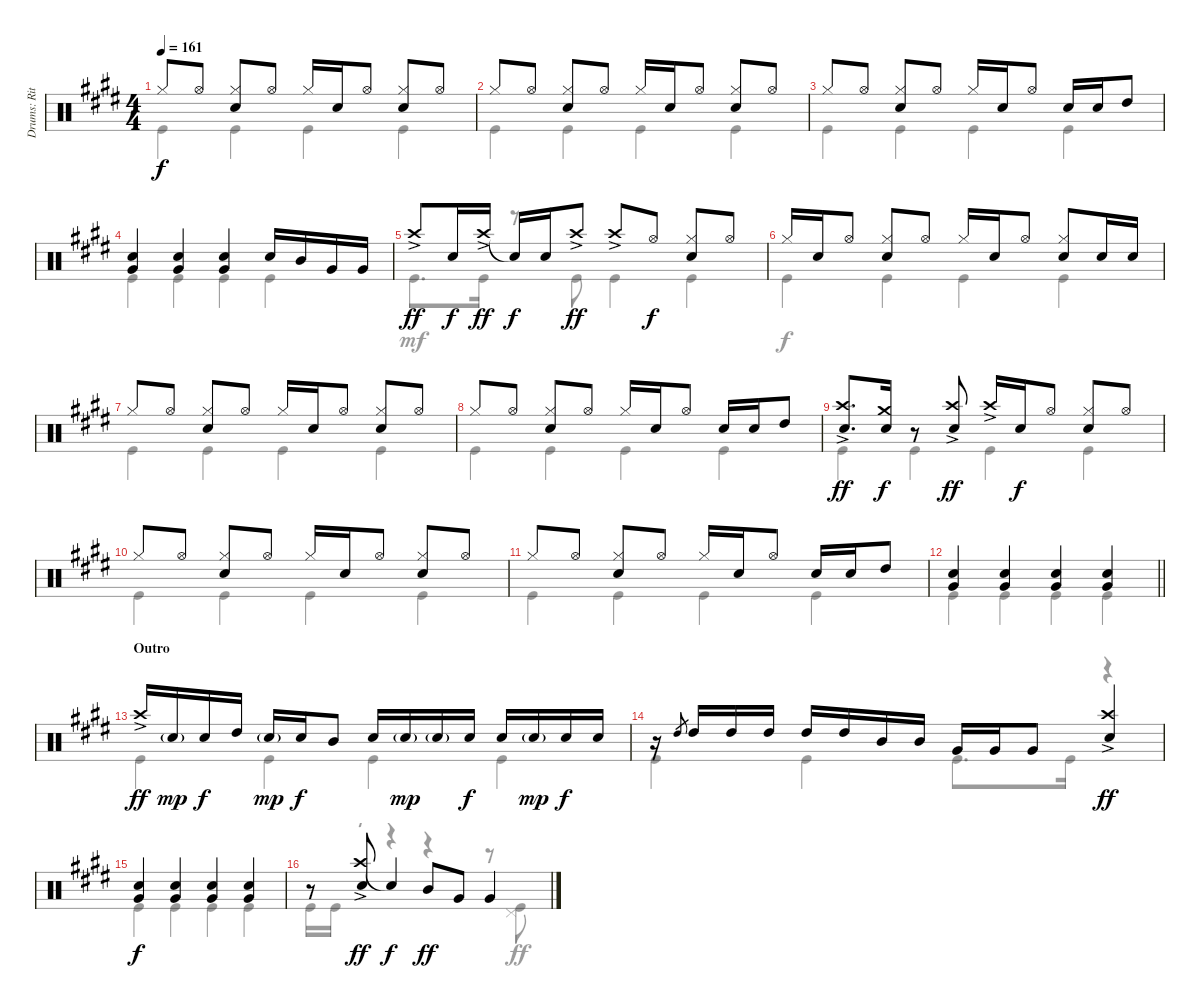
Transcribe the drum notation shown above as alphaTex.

\track ("Drums: Ritsu Tianaka" "Drums: Rit") {instrument percussion}
\staff {score}
\articulation defaults
\voice
\ts (4 4)
\tempo 161
\clef neutral
\ks e "Hi-Hat (closed)".8{dy f} "Hi-Hat (open)".8
("Hi-Hat (closed)" "Snare (hit) 2").8 "Hi-Hat (open)".8 "Hi-Hat (closed)".16 "Snare (hit) 2".16 "Hi-Hat (open)".8 ("Hi-Hat (closed)" "Snare (hit) 2").8 "Hi-Hat (open)".8 |
"Hi-Hat (closed)".8 "Hi-Hat (open)".8 ("Hi-Hat (closed)" "Snare (hit) 2").8 "Hi-Hat (open)".8 "Hi-Hat (closed)".16 "Snare (hit) 2".16 "Hi-Hat (open)".8 ("Hi-Hat (closed)" "Snare (hit) 2").8 "Hi-Hat (open)".8 |
"Hi-Hat (closed)".8 "Hi-Hat (open)".8 ("Hi-Hat (closed)" "Snare (hit) 2").8 "Hi-Hat (open)".8 "Hi-Hat (closed)".16 "Snare (hit) 2".16 "Hi-Hat (open)".8 "Snare (hit) 2".16 "Snare (hit) 2".16 "High Tom (hit)".8 |
("Snare (hit) 2" "Very Low Tom (hit)").4 ("Snare (hit) 2" "Very Low Tom (hit)").4 ("Snare (hit) 2" "Very Low Tom (hit)").4 "Snare (hit) 2".16 "Mid Tom (hit)".16 "Very Low Tom (hit)".16 "Very Low Tom (hit)".16 |
"Crash high (hit)"{ac}.8{dy ff} "Snare (hit) 2".16{dy f} "Crash high (hit)"{ac}.16{dy ff} "Snare (hit)"{t}.16{dy f} "Snare (hit) 2".16 "Crash high (hit)"{ac}.8{dy ff} "Crash high (hit)"{ac}.8 "Hi-Hat (open)".8{dy f} ("Hi-Hat (closed)" "Snare (hit) 2").8 "Hi-Hat (open)".8 |
"Hi-Hat (closed)".16 "Snare (hit) 2".16 "Hi-Hat (open)".8 ("Hi-Hat (closed)" "Snare (hit) 2").8 "Hi-Hat (open)".8 "Hi-Hat (closed)".16 "Snare (hit) 2".16 "Hi-Hat (open)".8 ("Hi-Hat (closed)" "Snare (hit) 2").8 "Snare (hit) 2".16 "Snare (hit) 2".16 |
"Hi-Hat (closed)".8 "Hi-Hat (open)".8 ("Hi-Hat (closed)" "Snare (hit) 2").8 "Hi-Hat (open)".8 "Hi-Hat (closed)".16 "Snare (hit) 2".16 "Hi-Hat (open)".8 ("Hi-Hat (closed)" "Snare (hit) 2").8 "Hi-Hat (open)".8 |
"Hi-Hat (closed)".8 "Hi-Hat (open)".8 ("Hi-Hat (closed)" "Snare (hit) 2").8 "Hi-Hat (open)".8 "Hi-Hat (closed)".16 "Snare (hit) 2".16 "Hi-Hat (open)".8 "Snare (hit) 2".16 "Snare (hit) 2".16 "High Tom (hit)".8 |
("Crash high (hit)"{ac} "Snare (hit) 2").8{d dy ff} ("Crash medium (hit)" "Snare (hit) 2").16{dy f} r.8 ("Crash high (hit)"{ac} "Snare (hit) 2").8{dy ff} "Crash high (hit)"{ac}.16 "Snare (hit) 2".16{dy f} "Hi-Hat (open)".8 ("Hi-Hat (closed)" "Snare (hit) 2").8 "Hi-Hat (open)".8 |
"Hi-Hat (closed)".8 "Hi-Hat (open)".8 ("Hi-Hat (closed)" "Snare (hit) 2").8 "Hi-Hat (open)".8 "Hi-Hat (closed)".16 "Snare (hit) 2".16 "Hi-Hat (open)".8 ("Hi-Hat (closed)" "Snare (hit) 2").8 "Hi-Hat (open)".8 |
"Hi-Hat (closed)".8 "Hi-Hat (open)".8 ("Hi-Hat (closed)" "Snare (hit) 2").8 "Hi-Hat (open)".8 "Hi-Hat (closed)".16 "Snare (hit) 2".16 "Hi-Hat (open)".8 "Snare (hit) 2".16 "Snare (hit) 2".16 "High Tom (hit)".8 |
\barLineRight lightlight
("Snare (hit) 2" "Very Low Tom (hit)").4 ("Snare (hit) 2" "Very Low Tom (hit)").4 ("Snare (hit) 2" "Very Low Tom (hit)").4 ("Snare (hit) 2" "Very Low Tom (hit)").4 |
\section ("" "Outro")
"Crash high (hit)"{ac}.16{dy ff} "Snare (hit) 2"{g}.16{dy mp} "Snare (hit) 2".16{dy f} "High Tom (hit)".16 "Snare (hit) 2"{g}.16{dy mp} "Snare (hit) 2".16{dy f} "Mid Tom (hit)".8 "Snare (hit) 2".16 "Snare (hit) 2"{g}.16{dy mp} "Snare (hit) 2"{g}.16 "Snare (hit) 2".16{dy f} "Snare (hit) 2".16 "Snare (hit) 2"{g}.16{dy mp} "Snare (hit) 2".16{dy f} "Snare (hit) 2".16 |
r.16 "High Tom (hit)".8{gr} "High Tom (hit)".16 "High Tom (hit)".16 "High Tom (hit)".16 "High Tom (hit)".16 "High Tom (hit)".16 "Mid Tom (hit)".16 "Mid Tom (hit)".16 "Very Low Tom (hit)".16 "Very Low Tom (hit)".16 "Very Low Tom (hit)".8 ("Crash high (hit)"{ac} "Snare (hit) 2").4{dy ff} |
("Snare (hit) 2" "Very Low Tom (hit)").4{dy f} ("Snare (hit) 2" "Very Low Tom (hit)").4 ("Snare (hit) 2" "Very Low Tom (hit)").4 ("Snare (hit) 2" "Very Low Tom (hit)").4 |
r.8 ("Crash high (hit)"{ac} "Snare (hit) 2").8{dy ff} "Snare (hit)"{t}.4{dy f} "Mid Tom (hit)".8{dy ff} "Very Low Tom (hit)".8 "Very Low Tom (hit)".4
\voice
\clef neutral
\ottava regular
\simile none
\ks e "Kick (hit)".4{dy f} "Kick (hit)".4 "Kick (hit)".4 "Kick (hit)".4
|
"Kick (hit)".4 "Kick (hit)".4 "Kick (hit)".4 "Kick (hit)".4 |
"Kick (hit)".4 "Kick (hit)".4 "Kick (hit)".4 "Kick (hit)".4 |
"Kick (hit)".4 "Kick (hit)".4 "Kick (hit)".4 "Kick (hit)".4 |
"Kick (hit)".8{d dy mf} "Kick (hit)".16 r.8 "Kick (hit)".8 "Kick (hit)".4 "Kick (hit)".4 |
"Kick (hit)".4{dy f} "Kick (hit)".4 "Kick (hit)".4 "Kick (hit)".4 |
"Kick (hit)".4 "Kick (hit)".4 "Kick (hit)".4 "Kick (hit)".4 |
"Kick (hit)".4 "Kick (hit)".4 "Kick (hit)".4 "Kick (hit)".4 |
"Kick (hit)".4 "Kick (hit)".4 "Kick (hit)".4 "Kick (hit)".4 |
"Kick (hit)".4 "Kick (hit)".4 "Kick (hit)".4 "Kick (hit)".4 |
"Kick (hit)".4 "Kick (hit)".4 "Kick (hit)".4 "Kick (hit)".4 |
\barLineRight lightlight "Kick (hit)".4 "Kick (hit)".4 "Kick (hit)".4 "Kick (hit)".4
|
"Kick (hit)".4 "Kick (hit)".4 "Kick (hit)".4 "Kick (hit)".4 |
"Kick (hit)".4 "Kick (hit)".4 "Kick (hit)".8{d} "Kick (hit)".16 r.4 |
"Kick (hit)".4 "Kick (hit)".4 "Kick (hit)".4 "Kick (hit)".4 |
"Kick (hit)".16 "Kick (hit)".16 r.8 r.4 r.4 r.8 ("Pedal Hi-Hat (hit)" "Kick (hit)").8{dy ff}
